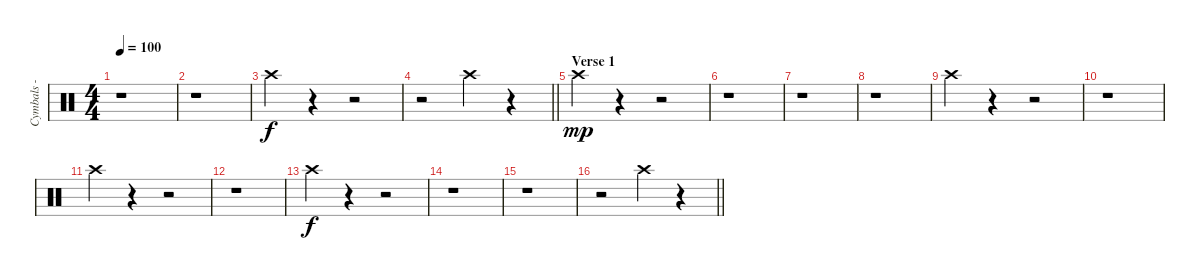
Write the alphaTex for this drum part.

\track ("Cymbals - crash" "Cymbals - ") {instrument percussion}
\staff {score}
\articulation defaults
\ts (4 4)
\tempo 100
\clef neutral
\ks c
r.1{dy f} |
r.1 |
"Crash high (hit)".4 r.4 r.2 |
\barLineRight lightlight
r.2 "Crash high (hit)".4 r.4 |
\section ("" "Verse 1")
"Crash high (hit)".4{dy mp} r.4 r.2 |
r.1 |
r.1 |
r.1 |
"Crash high (hit)".4{volume 7} r.4 r.2 |
r.1 |
"Crash high (hit)".4 r.4 r.2 |
r.1 |
"Crash high (hit)".4{dy f volume 10 balance 6} r.4 r.2 |
r.1 |
r.1 |
\barLineRight lightlight
r.2 "Crash high (hit)".4 r.4
